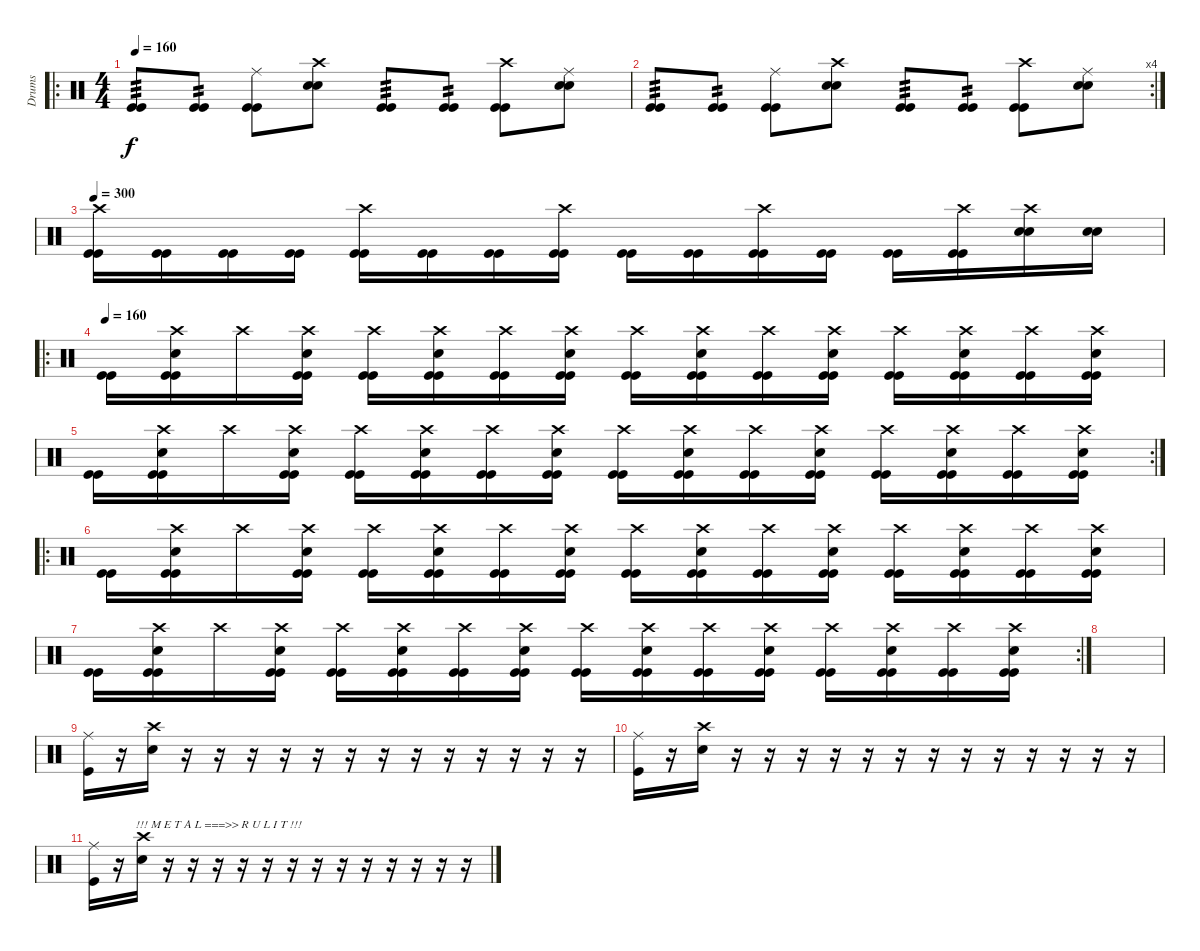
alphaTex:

\track ("Drums" "Drums") {instrument percussion}
\staff {score}
\articulation defaults
\ro
\ts (4 4)
\tempo 160
\clef neutral
\ks c
("Kick (hit)" "Kick (hit)").8{tp 3 dy f} ("Kick (hit)" "Kick (hit)").8{tp 2} ("Ride (middle)" "Kick (hit)" "Kick (hit)").8 ("Crash high (hit)" "Snare (hit) 2" "Snare (hit) 2").8 ("Kick (hit)" "Kick (hit)").8{tp 3} ("Kick (hit)" "Kick (hit)").8{tp 2} ("Crash high (hit)" "Kick (hit)" "Kick (hit)").8 ("Ride (middle)" "Snare (hit) 2" "Snare (hit) 2").8 |
\rc 4
("Kick (hit)" "Kick (hit)").8{tp 3} ("Kick (hit)" "Kick (hit)").8{tp 2} ("Ride (middle)" "Kick (hit)" "Kick (hit)").8 ("Crash high (hit)" "Snare (hit) 2" "Snare (hit) 2").8 ("Kick (hit)" "Kick (hit)").8{tp 3} ("Kick (hit)" "Kick (hit)").8{tp 2} ("Crash high (hit)" "Kick (hit)" "Kick (hit)").8 ("Ride (middle)" "Snare (hit) 2" "Snare (hit) 2").8 |
\tempo 300
("Crash high (hit)" "Kick (hit)" "Kick (hit)").16 ("Kick (hit)" "Kick (hit)").16 ("Kick (hit)" "Kick (hit)").16 ("Kick (hit)" "Kick (hit)").16 ("Crash high (hit)" "Kick (hit)" "Kick (hit)").16 ("Kick (hit)" "Kick (hit)").16 ("Kick (hit)" "Kick (hit)").16 ("Crash high (hit)" "Kick (hit)" "Kick (hit)").16 ("Kick (hit)" "Kick (hit)").16 ("Kick (hit)" "Kick (hit)").16 ("Crash high (hit)" "Kick (hit)" "Kick (hit)").16 ("Kick (hit)" "Kick (hit)").16 ("Kick (hit)" "Kick (hit)").16 ("Crash high (hit)" "Kick (hit)" "Kick (hit)").16 ("Crash high (hit)" "Snare (hit) 2" "Snare (hit) 2").16 ("Snare (hit) 2" "Snare (hit) 2").16 |
\ro
\tempo 160
("Kick (hit)" "Kick (hit)").16 ("Crash high (hit)" "Snare (hit) 2" "Kick (hit)" "Kick (hit)").16 "Crash high (hit)".16 ("Crash high (hit)" "Snare (hit) 2" "Kick (hit)" "Kick (hit)").16 ("Crash high (hit)" "Kick (hit)" "Kick (hit)").16 ("Crash high (hit)" "Snare (hit) 2" "Kick (hit)" "Kick (hit)").16 ("Crash high (hit)" "Kick (hit)" "Kick (hit)").16 ("Crash high (hit)" "Snare (hit) 2" "Kick (hit)" "Kick (hit)").16 ("Crash high (hit)" "Kick (hit)" "Kick (hit)").16 ("Crash high (hit)" "Snare (hit) 2" "Kick (hit)" "Kick (hit)").16 ("Crash high (hit)" "Kick (hit)" "Kick (hit)").16 ("Crash high (hit)" "Snare (hit) 2" "Kick (hit)" "Kick (hit)").16 ("Crash high (hit)" "Kick (hit)" "Kick (hit)").16 ("Crash high (hit)" "Snare (hit) 2" "Kick (hit)" "Kick (hit)").16 ("Crash high (hit)" "Kick (hit)" "Kick (hit)").16 ("Crash high (hit)" "Snare (hit) 2" "Kick (hit)" "Kick (hit)").16 |
\rc 2
("Kick (hit)" "Kick (hit)").16 ("Crash high (hit)" "Snare (hit) 2" "Kick (hit)" "Kick (hit)").16 "Crash high (hit)".16 ("Crash high (hit)" "Snare (hit) 2" "Kick (hit)" "Kick (hit)").16 ("Crash high (hit)" "Kick (hit)" "Kick (hit)").16 ("Crash high (hit)" "Snare (hit) 2" "Kick (hit)" "Kick (hit)").16 ("Crash high (hit)" "Kick (hit)" "Kick (hit)").16 ("Crash high (hit)" "Snare (hit) 2" "Kick (hit)" "Kick (hit)").16 ("Crash high (hit)" "Kick (hit)" "Kick (hit)").16 ("Crash high (hit)" "Snare (hit) 2" "Kick (hit)" "Kick (hit)").16 ("Crash high (hit)" "Kick (hit)" "Kick (hit)").16 ("Crash high (hit)" "Snare (hit) 2" "Kick (hit)" "Kick (hit)").16 ("Crash high (hit)" "Kick (hit)" "Kick (hit)").16 ("Crash high (hit)" "Snare (hit) 2" "Kick (hit)" "Kick (hit)").16 ("Crash high (hit)" "Kick (hit)" "Kick (hit)").16 ("Crash high (hit)" "Snare (hit) 2" "Kick (hit)" "Kick (hit)").16 |
\ro
("Kick (hit)" "Kick (hit)").16 ("Crash high (hit)" "Snare (hit) 2" "Kick (hit)" "Kick (hit)").16 "Crash high (hit)".16 ("Crash high (hit)" "Snare (hit) 2" "Kick (hit)" "Kick (hit)").16 ("Crash high (hit)" "Kick (hit)" "Kick (hit)").16 ("Crash high (hit)" "Snare (hit) 2" "Kick (hit)" "Kick (hit)").16 ("Crash high (hit)" "Kick (hit)" "Kick (hit)").16 ("Crash high (hit)" "Snare (hit) 2" "Kick (hit)" "Kick (hit)").16 ("Crash high (hit)" "Kick (hit)" "Kick (hit)").16 ("Crash high (hit)" "Snare (hit) 2" "Kick (hit)" "Kick (hit)").16 ("Crash high (hit)" "Kick (hit)" "Kick (hit)").16 ("Crash high (hit)" "Snare (hit) 2" "Kick (hit)" "Kick (hit)").16 ("Crash high (hit)" "Kick (hit)" "Kick (hit)").16 ("Crash high (hit)" "Snare (hit) 2" "Kick (hit)" "Kick (hit)").16 ("Crash high (hit)" "Kick (hit)" "Kick (hit)").16 ("Crash high (hit)" "Snare (hit) 2" "Kick (hit)" "Kick (hit)").16 |
\rc 2
("Kick (hit)" "Kick (hit)").16 ("Crash high (hit)" "Snare (hit) 2" "Kick (hit)" "Kick (hit)").16 "Crash high (hit)".16 ("Crash high (hit)" "Snare (hit) 2" "Kick (hit)" "Kick (hit)").16 ("Crash high (hit)" "Kick (hit)" "Kick (hit)").16 ("Crash high (hit)" "Snare (hit) 2" "Kick (hit)" "Kick (hit)").16 ("Crash high (hit)" "Kick (hit)" "Kick (hit)").16 ("Crash high (hit)" "Snare (hit) 2" "Kick (hit)" "Kick (hit)").16 ("Crash high (hit)" "Kick (hit)" "Kick (hit)").16 ("Crash high (hit)" "Snare (hit) 2" "Kick (hit)" "Kick (hit)").16 ("Crash high (hit)" "Kick (hit)" "Kick (hit)").16 ("Crash high (hit)" "Snare (hit) 2" "Kick (hit)" "Kick (hit)").16 ("Crash high (hit)" "Kick (hit)" "Kick (hit)").16 ("Crash high (hit)" "Snare (hit) 2" "Kick (hit)" "Kick (hit)").16 ("Crash high (hit)" "Kick (hit)" "Kick (hit)").16 ("Crash high (hit)" "Snare (hit) 2" "Kick (hit)" "Kick (hit)").16 |
|
("Ride (middle)" "Kick (hit)").16 r.16 ("Crash high (hit)" "Snare (hit) 2").16 r.16 r.16 r.16 r.16 r.16 r.16 r.16 r.16 r.16 r.16 r.16 r.16 r.16 |
("Ride (middle)" "Kick (hit)").16 r.16 ("Crash high (hit)" "Snare (hit) 2").16 r.16 r.16 r.16 r.16 r.16 r.16 r.16 r.16 r.16 r.16 r.16 r.16 r.16 |
("Ride (middle)" "Kick (hit)").16{txt "              !!! M E T A L ===>> R U L I T !!!"} r.16 ("Crash high (hit)" "Snare (hit) 2").16 r.16 r.16 r.16 r.16 r.16 r.16 r.16 r.16 r.16 r.16 r.16 r.16 r.16
